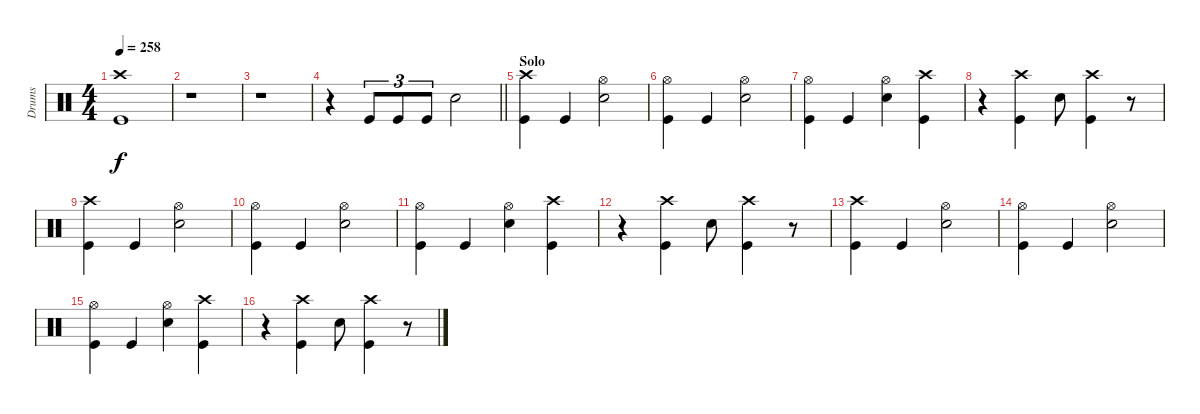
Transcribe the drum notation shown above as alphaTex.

\track ("Drums" "Drums") {instrument percussion}
\staff {score}
\articulation defaults
\ts (4 4)
\tempo 258
\clef neutral
\ks c
("Crash high (hit)" "Kick (hit)").1{dy f} |
r.1 |
r.1 |
\barLineRight lightlight
r.4 "Kick (hit)".8{tu (3 2)} "Kick (hit)".8{tu (3 2)} "Kick (hit)".8{tu (3 2)} "Electric Snare (hit)".2 |
\section ("" "Solo")
("Crash high (hit)" "Kick (hit)").4 "Kick (hit)".4 ("Hi-Hat (open)" "Electric Snare (hit)").2 |
("Hi-Hat (open)" "Kick (hit)").4 "Kick (hit)".4 ("Hi-Hat (open)" "Electric Snare (hit)").2 |
("Hi-Hat (open)" "Kick (hit)").4 "Kick (hit)".4 ("Hi-Hat (open)" "Electric Snare (hit)").4 ("Crash high (hit)" "Kick (hit)").4 |
r.4 ("Crash high (hit)" "Kick (hit)").4 "Electric Snare (hit)".8 ("Crash high (hit)" "Kick (hit)").4 r.8 |
("Crash high (hit)" "Kick (hit)").4 "Kick (hit)".4 ("Hi-Hat (open)" "Electric Snare (hit)").2 |
("Hi-Hat (open)" "Kick (hit)").4 "Kick (hit)".4 ("Hi-Hat (open)" "Electric Snare (hit)").2 |
("Hi-Hat (open)" "Kick (hit)").4 "Kick (hit)".4 ("Hi-Hat (open)" "Electric Snare (hit)").4 ("Crash high (hit)" "Kick (hit)").4 |
r.4 ("Crash high (hit)" "Kick (hit)").4 "Electric Snare (hit)".8 ("Crash high (hit)" "Kick (hit)").4 r.8 |
("Crash high (hit)" "Kick (hit)").4 "Kick (hit)".4 ("Hi-Hat (open)" "Electric Snare (hit)").2 |
("Hi-Hat (open)" "Kick (hit)").4 "Kick (hit)".4 ("Hi-Hat (open)" "Electric Snare (hit)").2 |
("Hi-Hat (open)" "Kick (hit)").4 "Kick (hit)".4 ("Hi-Hat (open)" "Electric Snare (hit)").4 ("Crash high (hit)" "Kick (hit)").4 |
r.4 ("Crash high (hit)" "Kick (hit)").4 "Electric Snare (hit)".8 ("Crash high (hit)" "Kick (hit)").4 r.8
